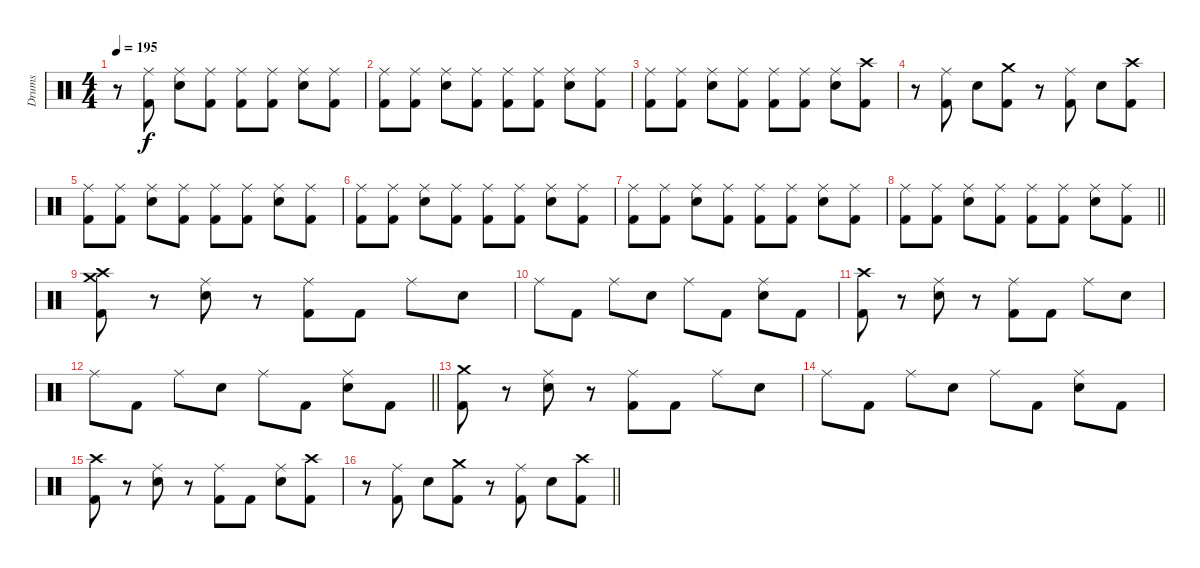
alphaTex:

\track ("Drums" "Drums") {instrument percussion}
\staff {score}
\articulation defaults
\ts (4 4)
\tempo 195
\clef neutral
\ks c
r.8{dy f} ("Ride (middle)" "Kick (hit) 2").8 ("Ride (middle)" "Electric Snare (hit)").8 ("Ride (middle)" "Kick (hit) 2").8 ("Ride (middle)" "Kick (hit) 2").8 ("Ride (middle)" "Kick (hit) 2").8 ("Ride (middle)" "Electric Snare (hit)").8 ("Ride (middle)" "Kick (hit) 2").8 |
("Ride (middle)" "Kick (hit) 2").8 ("Ride (middle)" "Kick (hit) 2").8 ("Ride (middle)" "Electric Snare (hit)").8 ("Ride (middle)" "Kick (hit) 2").8 ("Ride (middle)" "Kick (hit) 2").8 ("Ride (middle)" "Kick (hit) 2").8 ("Ride (middle)" "Electric Snare (hit)").8 ("Ride (middle)" "Kick (hit) 2").8 |
("Ride (middle)" "Kick (hit) 2").8 ("Ride (middle)" "Kick (hit) 2").8 ("Ride (middle)" "Electric Snare (hit)").8 ("Ride (middle)" "Kick (hit) 2").8 ("Ride (middle)" "Kick (hit) 2").8 ("Ride (middle)" "Kick (hit) 2").8 ("Ride (middle)" "Electric Snare (hit)").8 ("Crash high (hit)" "Kick (hit) 2").8 |
r.8 ("Ride (middle)" "Kick (hit) 2").8 "Electric Snare (hit)".8 ("Crash medium (hit)" "Kick (hit) 2").8 r.8 ("Ride (middle)" "Kick (hit) 2").8 "Electric Snare (hit)".8 ("Crash high (hit)" "Kick (hit) 2").8 |
("Ride (middle)" "Kick (hit) 2").8 ("Ride (middle)" "Kick (hit) 2").8 ("Ride (middle)" "Electric Snare (hit)").8 ("Ride (middle)" "Kick (hit) 2").8 ("Ride (middle)" "Kick (hit) 2").8 ("Ride (middle)" "Kick (hit) 2").8 ("Ride (middle)" "Electric Snare (hit)").8 ("Ride (middle)" "Kick (hit) 2").8 |
("Ride (middle)" "Kick (hit) 2").8 ("Ride (middle)" "Kick (hit) 2").8 ("Ride (middle)" "Electric Snare (hit)").8 ("Ride (middle)" "Kick (hit) 2").8 ("Ride (middle)" "Kick (hit) 2").8 ("Ride (middle)" "Kick (hit) 2").8 ("Ride (middle)" "Electric Snare (hit)").8 ("Ride (middle)" "Kick (hit) 2").8 |
("Ride (middle)" "Kick (hit) 2").8 ("Ride (middle)" "Kick (hit) 2").8 ("Ride (middle)" "Electric Snare (hit)").8 ("Ride (middle)" "Kick (hit) 2").8 ("Ride (middle)" "Kick (hit) 2").8 ("Ride (middle)" "Kick (hit) 2").8 ("Ride (middle)" "Electric Snare (hit)").8 ("Ride (middle)" "Kick (hit) 2").8 |
\barLineRight lightlight
("Ride (middle)" "Kick (hit) 2").8 ("Ride (middle)" "Kick (hit) 2").8 ("Ride (middle)" "Electric Snare (hit)").8 ("Ride (middle)" "Kick (hit) 2").8 ("Ride (middle)" "Kick (hit) 2").8 ("Ride (middle)" "Kick (hit) 2").8 ("Ride (middle)" "Electric Snare (hit)").8 ("Ride (middle)" "Kick (hit) 2").8 |
("Crash high (hit)" "Crash medium (hit)" "Kick (hit) 2").8 r.8 ("Ride (middle)" "Electric Snare (hit)").8 r.8 ("Ride (middle)" "Kick (hit) 2").8 "Kick (hit) 2".8 "Ride (middle)".8 "Electric Snare (hit)".8 |
"Ride (middle)".8 "Kick (hit) 2".8 "Ride (middle)".8 "Electric Snare (hit)".8 "Ride (middle)".8 "Kick (hit) 2".8 ("Ride (middle)" "Electric Snare (hit)").8 "Kick (hit) 2".8 |
("Crash high (hit)" "Kick (hit) 2").8 r.8 ("Ride (middle)" "Electric Snare (hit)").8 r.8 ("Ride (middle)" "Kick (hit) 2").8 "Kick (hit) 2".8 "Ride (middle)".8 "Electric Snare (hit)".8 |
\barLineRight lightlight "Ride (middle)".8 "Kick (hit) 2".8 "Ride (middle)".8 "Electric Snare (hit)".8 "Ride (middle)".8 "Kick (hit) 2".8
("Ride (middle)" "Electric Snare (hit)").8 "Kick (hit) 2".8 |
("Crash medium (hit)" "Kick (hit) 2").8 r.8 ("Ride (middle)" "Electric Snare (hit)").8 r.8 ("Ride (middle)" "Kick (hit) 2").8 "Kick (hit) 2".8 "Ride (middle)".8 "Electric Snare (hit)".8 |
"Ride (middle)".8 "Kick (hit) 2".8 "Ride (middle)".8 "Electric Snare (hit)".8 "Ride (middle)".8 "Kick (hit) 2".8 ("Ride (middle)" "Electric Snare (hit)").8 "Kick (hit) 2".8 |
("Crash high (hit)" "Kick (hit) 2").8 r.8 ("Ride (middle)" "Electric Snare (hit)").8 r.8 ("Ride (middle)" "Kick (hit) 2").8 "Kick (hit) 2".8 ("Ride (middle)" "Electric Snare (hit)").8 ("Crash high (hit)" "Kick (hit) 2").8 |
\barLineRight lightlight
r.8 ("Ride (middle)" "Kick (hit) 2").8 "Electric Snare (hit)".8 ("Crash medium (hit)" "Kick (hit) 2").8 r.8 ("Ride (middle)" "Kick (hit) 2").8 "Electric Snare (hit)".8 ("Crash high (hit)" "Kick (hit) 2").8
